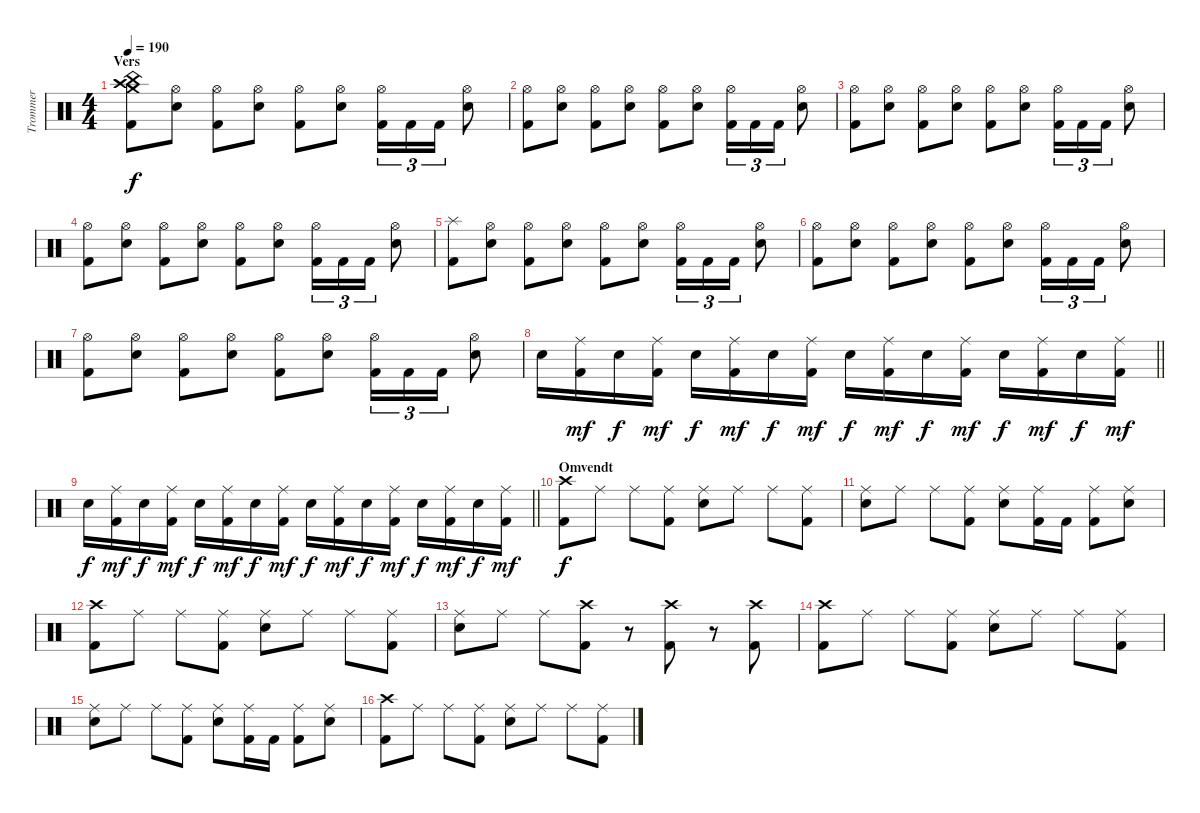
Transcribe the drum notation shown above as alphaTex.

\track ("Trommer" "Trommer") {instrument percussion}
\staff {score}
\articulation defaults
\ts (4 4)
\section ("" "Vers")
\tempo 190
\clef neutral
\ks c
("Crash medium (hit)" "Crash high (hit)" "China (hit)" "Kick (hit) 2").8{dy f} ("Hi-Hat (open)" "Snare (hit) 2").8 ("Hi-Hat (open)" "Kick (hit) 2").8 ("Hi-Hat (open)" "Snare (hit) 2").8 ("Hi-Hat (open)" "Kick (hit) 2").8 ("Hi-Hat (open)" "Snare (hit) 2").8 ("Hi-Hat (open)" "Kick (hit) 2").16{tu (3 2)} "Kick (hit) 2".16{tu (3 2)} "Kick (hit) 2".16{tu (3 2)} ("Hi-Hat (open)" "Snare (hit) 2").8 |
("Hi-Hat (open)" "Kick (hit) 2").8 ("Hi-Hat (open)" "Snare (hit) 2").8 ("Hi-Hat (open)" "Kick (hit) 2").8 ("Hi-Hat (open)" "Snare (hit) 2").8 ("Hi-Hat (open)" "Kick (hit) 2").8 ("Hi-Hat (open)" "Snare (hit) 2").8 ("Hi-Hat (open)" "Kick (hit) 2").16{tu (3 2)} "Kick (hit) 2".16{tu (3 2)} "Kick (hit) 2".16{tu (3 2)} ("Hi-Hat (open)" "Snare (hit) 2").8 |
("Hi-Hat (open)" "Kick (hit) 2").8 ("Hi-Hat (open)" "Snare (hit) 2").8 ("Hi-Hat (open)" "Kick (hit) 2").8 ("Hi-Hat (open)" "Snare (hit) 2").8 ("Hi-Hat (open)" "Kick (hit) 2").8 ("Hi-Hat (open)" "Snare (hit) 2").8 ("Hi-Hat (open)" "Kick (hit) 2").16{tu (3 2)} "Kick (hit) 2".16{tu (3 2)} "Kick (hit) 2".16{tu (3 2)} ("Hi-Hat (open)" "Snare (hit) 2").8 |
("Hi-Hat (open)" "Kick (hit) 2").8 ("Hi-Hat (open)" "Snare (hit) 2").8 ("Hi-Hat (open)" "Kick (hit) 2").8 ("Hi-Hat (open)" "Snare (hit) 2").8 ("Hi-Hat (open)" "Kick (hit) 2").8 ("Hi-Hat (open)" "Snare (hit) 2").8 ("Hi-Hat (open)" "Kick (hit) 2").16{tu (3 2)} "Kick (hit) 2".16{tu (3 2)} "Kick (hit) 2".16{tu (3 2)} ("Hi-Hat (open)" "Snare (hit) 2").8 |
("Splash (hit)" "Kick (hit) 2").8 ("Hi-Hat (open)" "Snare (hit) 2").8 ("Hi-Hat (open)" "Kick (hit) 2").8 ("Hi-Hat (open)" "Snare (hit) 2").8 ("Hi-Hat (open)" "Kick (hit) 2").8 ("Hi-Hat (open)" "Snare (hit) 2").8 ("Hi-Hat (open)" "Kick (hit) 2").16{tu (3 2)} "Kick (hit) 2".16{tu (3 2)} "Kick (hit) 2".16{tu (3 2)} ("Hi-Hat (open)" "Snare (hit) 2").8 |
("Hi-Hat (open)" "Kick (hit) 2").8 ("Hi-Hat (open)" "Snare (hit) 2").8 ("Hi-Hat (open)" "Kick (hit) 2").8 ("Hi-Hat (open)" "Snare (hit) 2").8 ("Hi-Hat (open)" "Kick (hit) 2").8 ("Hi-Hat (open)" "Snare (hit) 2").8 ("Hi-Hat (open)" "Kick (hit) 2").16{tu (3 2)} "Kick (hit) 2".16{tu (3 2)} "Kick (hit) 2".16{tu (3 2)} ("Hi-Hat (open)" "Snare (hit) 2").8 |
("Hi-Hat (open)" "Kick (hit) 2").8 ("Hi-Hat (open)" "Snare (hit) 2").8 ("Hi-Hat (open)" "Kick (hit) 2").8 ("Hi-Hat (open)" "Snare (hit) 2").8 ("Hi-Hat (open)" "Kick (hit) 2").8 ("Hi-Hat (open)" "Snare (hit) 2").8 ("Hi-Hat (open)" "Kick (hit) 2").16{tu (3 2)} "Kick (hit) 2".16{tu (3 2)} "Kick (hit) 2".16{tu (3 2)} ("Hi-Hat (open)" "Snare (hit) 2").8 |
\barLineRight lightlight "Snare (hit) 2".16
("Ride (middle)" "Kick (hit) 2").16{dy mf} "Snare (hit) 2".16{dy f} ("Ride (middle)" "Kick (hit) 2").16{dy mf} "Snare (hit) 2".16{dy f} ("Ride (middle)" "Kick (hit) 2").16{dy mf} "Snare (hit) 2".16{dy f} ("Ride (middle)" "Kick (hit) 2").16{dy mf} "Snare (hit) 2".16{dy f} ("Ride (middle)" "Kick (hit) 2").16{dy mf} "Snare (hit) 2".16{dy f} ("Ride (middle)" "Kick (hit) 2").16{dy mf} "Snare (hit) 2".16{dy f} ("Ride (middle)" "Kick (hit) 2").16{dy mf} "Snare (hit) 2".16{dy f} ("Ride (middle)" "Kick (hit) 2").16{dy mf} |
\barLineRight lightlight "Snare (hit) 2".16{dy f}
("Ride (middle)" "Kick (hit) 2").16{dy mf} "Snare (hit) 2".16{dy f} ("Ride (middle)" "Kick (hit) 2").16{dy mf} "Snare (hit) 2".16{dy f} ("Ride (middle)" "Kick (hit) 2").16{dy mf} "Snare (hit) 2".16{dy f} ("Ride (middle)" "Kick (hit) 2").16{dy mf} "Snare (hit) 2".16{dy f} ("Ride (middle)" "Kick (hit) 2").16{dy mf} "Snare (hit) 2".16{dy f} ("Ride (middle)" "Kick (hit) 2").16{dy mf} "Snare (hit) 2".16{dy f} ("Ride (middle)" "Kick (hit) 2").16{dy mf} "Snare (hit) 2".16{dy f} ("Ride (middle)" "Kick (hit) 2").16{dy mf} |
\section ("" "Omvendt")
("Crash high (hit)" "Kick (hit) 2").8{dy f} "Ride (middle)".8 "Ride (middle)".8 ("Ride (middle)" "Kick (hit) 2").8 ("Ride (middle)" "Snare (hit) 2").8 "Ride (middle)".8 "Ride (middle)".8 ("Ride (middle)" "Kick (hit) 2").8 |
("Ride (middle)" "Snare (hit) 2").8 "Ride (middle)".8 "Ride (middle)".8 ("Ride (middle)" "Kick (hit) 2").8 ("Ride (middle)" "Snare (hit) 2").8 ("Ride (middle)" "Kick (hit) 2").16 "Kick (hit) 2".16 ("Ride (middle)" "Kick (hit) 2").8 ("Ride (middle)" "Snare (hit) 2").8 |
("Crash high (hit)" "Kick (hit) 2").8 "Ride (middle)".8 "Ride (middle)".8 ("Ride (middle)" "Kick (hit) 2").8 ("Ride (middle)" "Snare (hit) 2").8 "Ride (middle)".8 "Ride (middle)".8 ("Ride (middle)" "Kick (hit) 2").8 |
("Ride (middle)" "Snare (hit) 2").8 "Ride (middle)".8 "Ride (middle)".8 ("Crash high (hit)" "Kick (hit) 2").8 r.8 ("Crash high (hit)" "Kick (hit) 2").8 r.8 ("Crash high (hit)" "Kick (hit) 2").8 |
("Crash high (hit)" "Kick (hit) 2").8 "Ride (middle)".8 "Ride (middle)".8 ("Ride (middle)" "Kick (hit) 2").8 ("Ride (middle)" "Snare (hit) 2").8 "Ride (middle)".8 "Ride (middle)".8 ("Ride (middle)" "Kick (hit) 2").8 |
("Ride (middle)" "Snare (hit) 2").8 "Ride (middle)".8 "Ride (middle)".8 ("Ride (middle)" "Kick (hit) 2").8 ("Ride (middle)" "Snare (hit) 2").8 ("Ride (middle)" "Kick (hit) 2").16 "Kick (hit) 2".16 ("Ride (middle)" "Kick (hit) 2").8 ("Ride (middle)" "Snare (hit) 2").8 |
("Crash high (hit)" "Kick (hit) 2").8 "Ride (middle)".8 "Ride (middle)".8 ("Ride (middle)" "Kick (hit) 2").8 ("Ride (middle)" "Snare (hit) 2").8 "Ride (middle)".8 "Ride (middle)".8 ("Ride (middle)" "Kick (hit) 2").8
